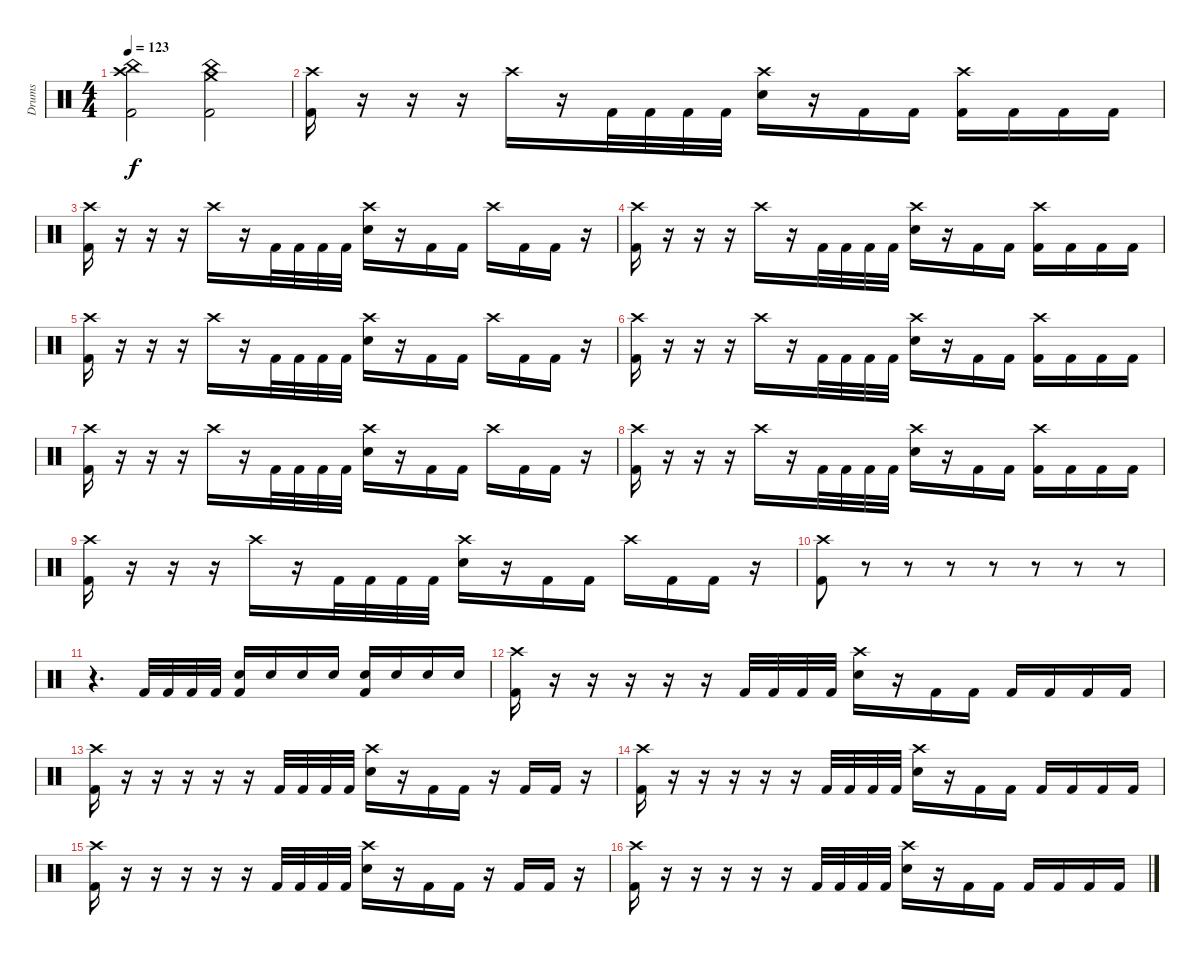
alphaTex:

\track ("Drums" "Drums") {instrument percussion}
\staff {score}
\articulation defaults
\ts (4 4)
\tempo 123
\clef neutral
\ks c
("Crash high (hit)" "China (hit)" "Kick (hit) 2").2{dy f} ("Crash medium (hit)" "China (hit)" "Kick (hit) 2").2 |
("Crash high (hit)" "Kick (hit) 2").16 r.16 r.16 r.16 "Crash high (hit)".16 r.16 "Kick (hit) 2".32 "Kick (hit) 2".32 "Kick (hit) 2".32 "Kick (hit) 2".32 ("Crash high (hit)" "Electric Snare (hit)").16 r.16 "Kick (hit) 2".16 "Kick (hit) 2".16 ("Crash high (hit)" "Kick (hit) 2").16 "Kick (hit) 2".16 "Kick (hit) 2".16 "Kick (hit) 2".16 |
("Crash high (hit)" "Kick (hit) 2").16 r.16 r.16 r.16 "Crash high (hit)".16 r.16 "Kick (hit) 2".32 "Kick (hit) 2".32 "Kick (hit) 2".32 "Kick (hit) 2".32 ("Crash high (hit)" "Electric Snare (hit)").16 r.16 "Kick (hit) 2".16 "Kick (hit) 2".16 "Crash high (hit)".16 "Kick (hit) 2".16 "Kick (hit) 2".16 r.16 |
("Crash high (hit)" "Kick (hit) 2").16 r.16 r.16 r.16 "Crash high (hit)".16 r.16 "Kick (hit) 2".32 "Kick (hit) 2".32 "Kick (hit) 2".32 "Kick (hit) 2".32 ("Crash high (hit)" "Electric Snare (hit)").16 r.16 "Kick (hit) 2".16 "Kick (hit) 2".16 ("Crash high (hit)" "Kick (hit) 2").16 "Kick (hit) 2".16 "Kick (hit) 2".16 "Kick (hit) 2".16 |
("Crash high (hit)" "Kick (hit) 2").16 r.16 r.16 r.16 "Crash high (hit)".16 r.16 "Kick (hit) 2".32 "Kick (hit) 2".32 "Kick (hit) 2".32 "Kick (hit) 2".32 ("Crash high (hit)" "Electric Snare (hit)").16 r.16 "Kick (hit) 2".16 "Kick (hit) 2".16 "Crash high (hit)".16 "Kick (hit) 2".16 "Kick (hit) 2".16 r.16 |
("Crash high (hit)" "Kick (hit) 2").16 r.16 r.16 r.16 "Crash high (hit)".16 r.16 "Kick (hit) 2".32 "Kick (hit) 2".32 "Kick (hit) 2".32 "Kick (hit) 2".32 ("Crash high (hit)" "Electric Snare (hit)").16 r.16 "Kick (hit) 2".16 "Kick (hit) 2".16 ("Crash high (hit)" "Kick (hit) 2").16 "Kick (hit) 2".16 "Kick (hit) 2".16 "Kick (hit) 2".16 |
("Crash high (hit)" "Kick (hit) 2").16 r.16 r.16 r.16 "Crash high (hit)".16 r.16 "Kick (hit) 2".32 "Kick (hit) 2".32 "Kick (hit) 2".32 "Kick (hit) 2".32 ("Crash high (hit)" "Electric Snare (hit)").16 r.16 "Kick (hit) 2".16 "Kick (hit) 2".16 "Crash high (hit)".16 "Kick (hit) 2".16 "Kick (hit) 2".16 r.16 |
("Crash high (hit)" "Kick (hit) 2").16 r.16 r.16 r.16 "Crash high (hit)".16 r.16 "Kick (hit) 2".32 "Kick (hit) 2".32 "Kick (hit) 2".32 "Kick (hit) 2".32 ("Crash high (hit)" "Electric Snare (hit)").16 r.16 "Kick (hit) 2".16 "Kick (hit) 2".16 ("Crash high (hit)" "Kick (hit) 2").16 "Kick (hit) 2".16 "Kick (hit) 2".16 "Kick (hit) 2".16 |
("Crash high (hit)" "Kick (hit) 2").16 r.16 r.16 r.16 "Crash high (hit)".16 r.16 "Kick (hit) 2".32 "Kick (hit) 2".32 "Kick (hit) 2".32 "Kick (hit) 2".32 ("Crash high (hit)" "Electric Snare (hit)").16 r.16 "Kick (hit) 2".16 "Kick (hit) 2".16 "Crash high (hit)".16 "Kick (hit) 2".16 "Kick (hit) 2".16 r.16 |
("Crash high (hit)" "Kick (hit) 2").8 r.8{volume 0} r.8 r.8 r.8 r.8 r.8 r.8 |
r.4{d} "Kick (hit) 2".32{volume 13} "Kick (hit) 2".32 "Kick (hit) 2".32 "Kick (hit) 2".32 ("Electric Snare (hit)" "Kick (hit) 2").16 "Electric Snare (hit)".16 "Electric Snare (hit)".16 "Electric Snare (hit)".16 ("Electric Snare (hit)" "Kick (hit) 2").16 "Electric Snare (hit)".16 "Electric Snare (hit)".16 "Electric Snare (hit)".16 |
("Crash high (hit)" "Kick (hit) 2").16 r.16 r.16 r.16 r.16 r.16 "Kick (hit) 2".32 "Kick (hit) 2".32 "Kick (hit) 2".32 "Kick (hit) 2".32 ("Crash high (hit)" "Electric Snare (hit)").16 r.16 "Kick (hit) 2".16 "Kick (hit) 2".16 "Kick (hit) 2".16 "Kick (hit) 2".16 "Kick (hit) 2".16 "Kick (hit) 2".16 |
("Crash high (hit)" "Kick (hit) 2").16 r.16 r.16 r.16 r.16 r.16 "Kick (hit) 2".32 "Kick (hit) 2".32 "Kick (hit) 2".32 "Kick (hit) 2".32 ("Crash high (hit)" "Electric Snare (hit)").16 r.16 "Kick (hit) 2".16 "Kick (hit) 2".16 r.16 "Kick (hit) 2".16 "Kick (hit) 2".16 r.16 |
("Crash high (hit)" "Kick (hit) 2").16 r.16 r.16 r.16 r.16 r.16 "Kick (hit) 2".32 "Kick (hit) 2".32 "Kick (hit) 2".32 "Kick (hit) 2".32 ("Crash high (hit)" "Electric Snare (hit)").16 r.16 "Kick (hit) 2".16 "Kick (hit) 2".16 "Kick (hit) 2".16 "Kick (hit) 2".16 "Kick (hit) 2".16 "Kick (hit) 2".16 |
("Crash high (hit)" "Kick (hit) 2").16 r.16 r.16 r.16 r.16 r.16 "Kick (hit) 2".32 "Kick (hit) 2".32 "Kick (hit) 2".32 "Kick (hit) 2".32 ("Crash high (hit)" "Electric Snare (hit)").16 r.16 "Kick (hit) 2".16 "Kick (hit) 2".16 r.16 "Kick (hit) 2".16 "Kick (hit) 2".16 r.16 |
("Crash high (hit)" "Kick (hit) 2").16 r.16 r.16 r.16 r.16 r.16 "Kick (hit) 2".32 "Kick (hit) 2".32 "Kick (hit) 2".32 "Kick (hit) 2".32 ("Crash high (hit)" "Electric Snare (hit)").16 r.16 "Kick (hit) 2".16 "Kick (hit) 2".16 "Kick (hit) 2".16 "Kick (hit) 2".16 "Kick (hit) 2".16 "Kick (hit) 2".16
